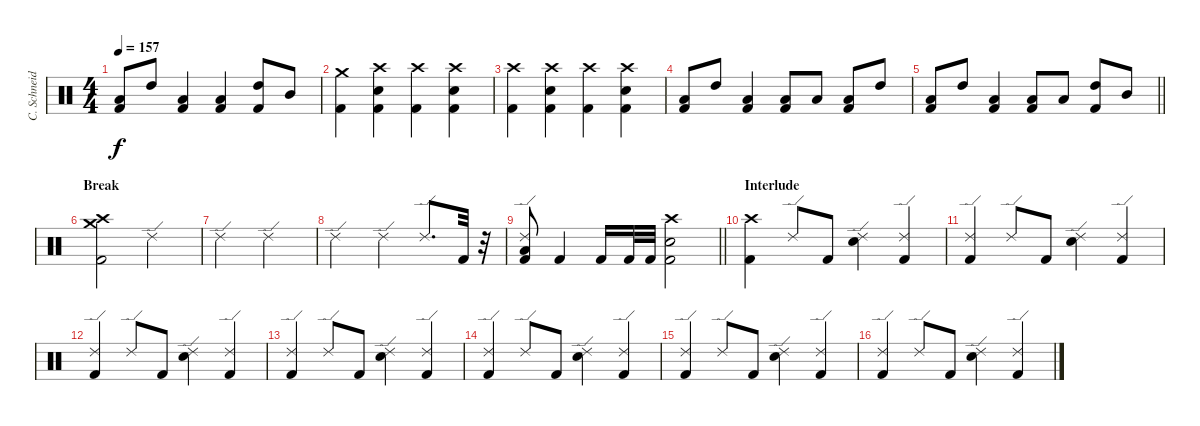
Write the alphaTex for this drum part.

\track ("C. Schneider" "C. Schneid") {instrument percussion}
\staff {score}
\articulation defaults
\ts (4 4)
\tempo 157
\clef neutral
\ks c
("Kick (hit) 2" "Low Tom (hit)").8{dy f} "High Tom (hit)".8 ("Kick (hit) 2" "Low Tom (hit)").4 ("Kick (hit) 2" "Low Tom (hit)").4 ("Kick (hit) 2" "High Tom (hit)").8 "Mid Tom (hit)".8 |
("Kick (hit) 2" "Crash medium (hit)").4 ("Kick (hit) 2" "Electric Snare (hit)" "Crash high (hit)").4 ("Kick (hit) 2" "Crash high (hit)").4 ("Kick (hit) 2" "Electric Snare (hit)" "Crash high (hit)").4 |
("Kick (hit) 2" "Crash high (hit)").4 ("Kick (hit) 2" "Electric Snare (hit)" "Crash high (hit)").4 ("Kick (hit) 2" "Crash high (hit)").4 ("Kick (hit) 2" "Electric Snare (hit)" "Crash high (hit)").4 |
("Kick (hit) 2" "Low Tom (hit)").8 "High Tom (hit)".8 ("Kick (hit) 2" "Low Tom (hit)").4 ("Kick (hit) 2" "Low Tom (hit)").8 "Low Tom (hit)".8 ("Kick (hit) 2" "Low Tom (hit)").8 "High Tom (hit)".8 |
\barLineRight lightlight
("Kick (hit) 2" "Low Tom (hit)").8 "High Tom (hit)".8 ("Kick (hit) 2" "Low Tom (hit)").4 ("Kick (hit) 2" "Low Tom (hit)").8 "Low Tom (hit)".8 ("Kick (hit) 2" "High Tom (hit)").8 "Mid Tom (hit)".8 |
\section ("" "Break")
("Kick (hit) 2" "Crash high (hit)" "Crash medium (hit)").2 "Ride (edge) 2".2 |
"Ride (edge) 2".2 "Ride (edge) 2".2 |
"Ride (edge) 2".2 "Ride (edge) 2".4 "Ride (edge) 2".8{d} "Kick (hit) 2".32 r.32 |
\barLineRight lightlight
("Kick (hit) 2" "Low Tom (hit)" "Ride (edge) 2").8 "Kick (hit) 2".4 "Kick (hit) 2".16 "Kick (hit) 2".32 "Kick (hit) 2".32 ("Kick (hit) 2" "Electric Snare (hit)" "Crash high (hit)").2 |
\section ("" "Interlude")
("Kick (hit) 2" "Crash high (hit)").4 "Ride (edge) 2".8 "Kick (hit) 2".8 ("Electric Snare (hit)" "Ride (edge) 2").4 ("Kick (hit) 2" "Ride (edge) 2").4 |
("Kick (hit) 2" "Ride (edge) 2").4 "Ride (edge) 2".8 "Kick (hit) 2".8 ("Electric Snare (hit)" "Ride (edge) 2").4 ("Kick (hit) 2" "Ride (edge) 2").4 |
("Kick (hit) 2" "Ride (edge) 2").4 "Ride (edge) 2".8 "Kick (hit) 2".8 ("Electric Snare (hit)" "Ride (edge) 2").4 ("Kick (hit) 2" "Ride (edge) 2").4 |
("Kick (hit) 2" "Ride (edge) 2").4 "Ride (edge) 2".8 "Kick (hit) 2".8 ("Electric Snare (hit)" "Ride (edge) 2").4 ("Kick (hit) 2" "Ride (edge) 2").4 |
("Kick (hit) 2" "Ride (edge) 2").4 "Ride (edge) 2".8 "Kick (hit) 2".8 ("Electric Snare (hit)" "Ride (edge) 2").4 ("Kick (hit) 2" "Ride (edge) 2").4 |
("Kick (hit) 2" "Ride (edge) 2").4 "Ride (edge) 2".8 "Kick (hit) 2".8 ("Electric Snare (hit)" "Ride (edge) 2").4 ("Kick (hit) 2" "Ride (edge) 2").4 |
("Kick (hit) 2" "Ride (edge) 2").4 "Ride (edge) 2".8 "Kick (hit) 2".8 ("Electric Snare (hit)" "Ride (edge) 2").4 ("Kick (hit) 2" "Ride (edge) 2").4
